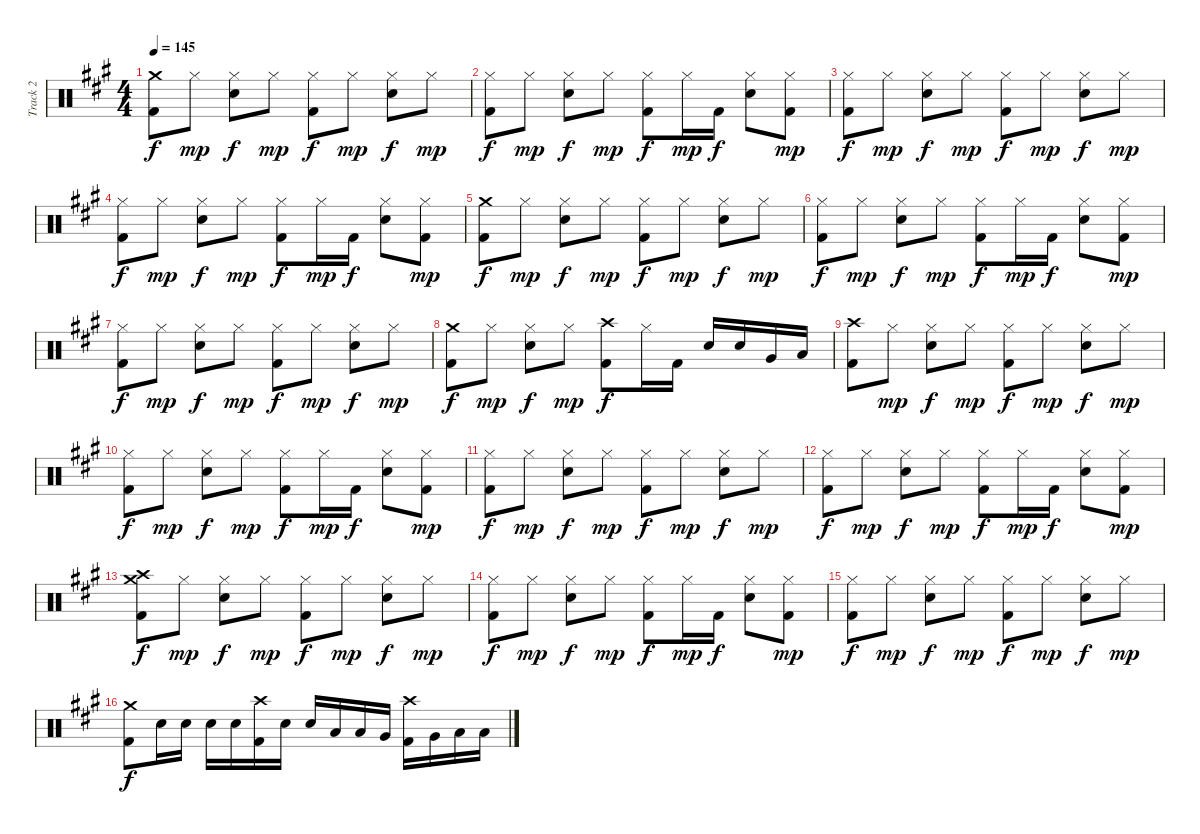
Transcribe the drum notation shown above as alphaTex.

\track ("Track 2" "Track 2") {instrument percussion}
\staff {score}
\articulation defaults
\ts (4 4)
\tempo 145
\clef neutral
\ks a
("Crash medium (hit)" "Kick (hit) 2").8{dy f} "Hi-Hat (closed)".8{dy mp} ("Hi-Hat (closed)" "Snare (hit) 2").8{dy f} "Hi-Hat (closed)".8{dy mp} ("Hi-Hat (closed)" "Kick (hit) 2").8{dy f} "Hi-Hat (closed)".8{dy mp} ("Hi-Hat (closed)" "Snare (hit) 2").8{dy f} "Hi-Hat (closed)".8{dy mp} |
("Hi-Hat (closed)" "Kick (hit) 2").8{dy f} "Hi-Hat (closed)".8{dy mp} ("Hi-Hat (closed)" "Snare (hit) 2").8{dy f} "Hi-Hat (closed)".8{dy mp} ("Hi-Hat (closed)" "Kick (hit) 2").8{dy f} "Hi-Hat (closed)".16{dy mp} "Kick (hit) 2".16{dy f} ("Hi-Hat (closed)" "Snare (hit) 2").8 ("Hi-Hat (closed)" "Kick (hit) 2").8{dy mp} |
("Hi-Hat (closed)" "Kick (hit) 2").8{dy f} "Hi-Hat (closed)".8{dy mp} ("Hi-Hat (closed)" "Snare (hit) 2").8{dy f} "Hi-Hat (closed)".8{dy mp} ("Hi-Hat (closed)" "Kick (hit) 2").8{dy f} "Hi-Hat (closed)".8{dy mp} ("Hi-Hat (closed)" "Snare (hit) 2").8{dy f} "Hi-Hat (closed)".8{dy mp} |
("Hi-Hat (closed)" "Kick (hit) 2").8{dy f} "Hi-Hat (closed)".8{dy mp} ("Hi-Hat (closed)" "Snare (hit) 2").8{dy f} "Hi-Hat (closed)".8{dy mp} ("Hi-Hat (closed)" "Kick (hit) 2").8{dy f} "Hi-Hat (closed)".16{dy mp} "Kick (hit) 2".16{dy f} ("Hi-Hat (closed)" "Snare (hit) 2").8 ("Hi-Hat (closed)" "Kick (hit) 2").8{dy mp} |
("Crash medium (hit)" "Kick (hit) 2").8{dy f} "Hi-Hat (closed)".8{dy mp} ("Hi-Hat (closed)" "Snare (hit) 2").8{dy f} "Hi-Hat (closed)".8{dy mp} ("Hi-Hat (closed)" "Kick (hit) 2").8{dy f} "Hi-Hat (closed)".8{dy mp} ("Hi-Hat (closed)" "Snare (hit) 2").8{dy f} "Hi-Hat (closed)".8{dy mp} |
("Hi-Hat (closed)" "Kick (hit) 2").8{dy f} "Hi-Hat (closed)".8{dy mp} ("Hi-Hat (closed)" "Snare (hit) 2").8{dy f} "Hi-Hat (closed)".8{dy mp} ("Hi-Hat (closed)" "Kick (hit) 2").8{dy f} "Hi-Hat (closed)".16{dy mp} "Kick (hit) 2".16{dy f} ("Hi-Hat (closed)" "Snare (hit) 2").8 ("Hi-Hat (closed)" "Kick (hit) 2").8{dy mp} |
("Hi-Hat (closed)" "Kick (hit) 2").8{dy f} "Hi-Hat (closed)".8{dy mp} ("Hi-Hat (closed)" "Snare (hit) 2").8{dy f} "Hi-Hat (closed)".8{dy mp} ("Hi-Hat (closed)" "Kick (hit) 2").8{dy f} "Hi-Hat (closed)".8{dy mp} ("Hi-Hat (closed)" "Snare (hit) 2").8{dy f} "Hi-Hat (closed)".8{dy mp} |
("Crash medium (hit)" "Kick (hit) 2").8{dy f} "Hi-Hat (closed)".8{dy mp} ("Hi-Hat (closed)" "Snare (hit) 2").8{dy f} "Hi-Hat (closed)".8{dy mp} ("Crash high (hit)" "Kick (hit) 2").8{dy f} "Hi-Hat (closed)".16 "Kick (hit) 2".16 "Snare (hit) 2".16 "Snare (hit) 2".16 "Very Low Tom (hit)".16 "Low Floor Tom (hit)".16 |
("Crash high (hit)" "Kick (hit) 2").8 "Hi-Hat (closed)".8{dy mp} ("Hi-Hat (closed)" "Snare (hit) 2").8{dy f} "Hi-Hat (closed)".8{dy mp} ("Hi-Hat (closed)" "Kick (hit) 2").8{dy f} "Hi-Hat (closed)".8{dy mp} ("Hi-Hat (closed)" "Snare (hit) 2").8{dy f} "Hi-Hat (closed)".8{dy mp} |
("Hi-Hat (closed)" "Kick (hit) 2").8{dy f} "Hi-Hat (closed)".8{dy mp} ("Hi-Hat (closed)" "Snare (hit) 2").8{dy f} "Hi-Hat (closed)".8{dy mp} ("Hi-Hat (closed)" "Kick (hit) 2").8{dy f} "Hi-Hat (closed)".16{dy mp} "Kick (hit) 2".16{dy f} ("Hi-Hat (closed)" "Snare (hit) 2").8 ("Hi-Hat (closed)" "Kick (hit) 2").8{dy mp} |
("Hi-Hat (closed)" "Kick (hit) 2").8{dy f} "Hi-Hat (closed)".8{dy mp} ("Hi-Hat (closed)" "Snare (hit) 2").8{dy f} "Hi-Hat (closed)".8{dy mp} ("Hi-Hat (closed)" "Kick (hit) 2").8{dy f} "Hi-Hat (closed)".8{dy mp} ("Hi-Hat (closed)" "Snare (hit) 2").8{dy f} "Hi-Hat (closed)".8{dy mp} |
("Hi-Hat (closed)" "Kick (hit) 2").8{dy f} "Hi-Hat (closed)".8{dy mp} ("Hi-Hat (closed)" "Snare (hit) 2").8{dy f} "Hi-Hat (closed)".8{dy mp} ("Hi-Hat (closed)" "Kick (hit) 2").8{dy f} "Hi-Hat (closed)".16{dy mp} "Kick (hit) 2".16{dy f} ("Hi-Hat (closed)" "Snare (hit) 2").8 ("Hi-Hat (closed)" "Kick (hit) 2").8{dy mp} |
("Crash high (hit)" "Crash medium (hit)" "Kick (hit) 2").8{dy f} "Hi-Hat (closed)".8{dy mp} ("Hi-Hat (closed)" "Snare (hit) 2").8{dy f} "Hi-Hat (closed)".8{dy mp} ("Hi-Hat (closed)" "Kick (hit) 2").8{dy f} "Hi-Hat (closed)".8{dy mp} ("Hi-Hat (closed)" "Snare (hit) 2").8{dy f} "Hi-Hat (closed)".8{dy mp} |
("Hi-Hat (closed)" "Kick (hit) 2").8{dy f} "Hi-Hat (closed)".8{dy mp} ("Hi-Hat (closed)" "Snare (hit) 2").8{dy f} "Hi-Hat (closed)".8{dy mp} ("Hi-Hat (closed)" "Kick (hit) 2").8{dy f} "Hi-Hat (closed)".16{dy mp} "Kick (hit) 2".16{dy f} ("Hi-Hat (closed)" "Snare (hit) 2").8 ("Hi-Hat (closed)" "Kick (hit) 2").8{dy mp} |
("Hi-Hat (closed)" "Kick (hit) 2").8{dy f} "Hi-Hat (closed)".8{dy mp} ("Hi-Hat (closed)" "Snare (hit) 2").8{dy f} "Hi-Hat (closed)".8{dy mp} ("Hi-Hat (closed)" "Kick (hit) 2").8{dy f} "Hi-Hat (closed)".8{dy mp} ("Hi-Hat (closed)" "Snare (hit) 2").8{dy f} "Hi-Hat (closed)".8{dy mp} |
("Crash medium (hit)" "Kick (hit) 2").8{dy f} "Snare (hit) 2".16 "Snare (hit) 2".16 "Snare (hit) 2".16 "Snare (hit) 2".16 ("Crash high (hit)" "Kick (hit) 2").16 "Snare (hit) 2".16 "Snare (hit) 2".16 "Low Tom (hit)".16 "Low Tom (hit)".16 "Very Low Tom (hit)".16 ("Crash high (hit)" "Kick (hit) 2").16 "Very Low Tom (hit)".16 "Low Floor Tom (hit)".16 "Low Floor Tom (hit)".16
